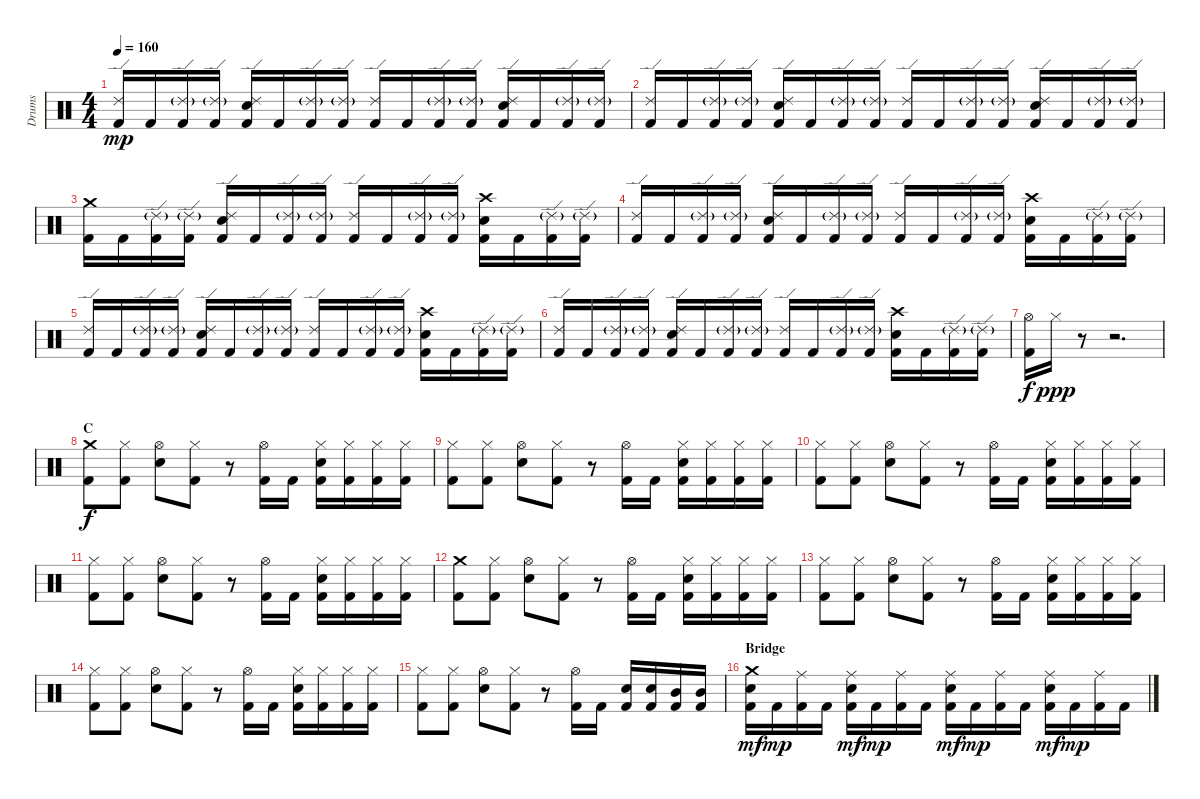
\track ("Drums" "Drums") {instrument percussion}
\staff {score}
\articulation defaults
\ts (4 4)
\tempo 160
\clef neutral
\ks c
("Kick (hit) 2" "Ride (edge) 2").16{dy mp} "Kick (hit) 2".16 ("Kick (hit) 2" "Ride (edge) 2"{g}).16 ("Kick (hit) 2" "Ride (edge) 2"{g}).16 ("Kick (hit) 2" "Snare (hit) 2" "Ride (edge) 2").16 "Kick (hit) 2".16 ("Kick (hit) 2" "Ride (edge) 2"{g}).16 ("Kick (hit) 2" "Ride (edge) 2"{g}).16 ("Kick (hit) 2" "Ride (edge) 2").16 "Kick (hit) 2".16 ("Kick (hit) 2" "Ride (edge) 2"{g}).16 ("Kick (hit) 2" "Ride (edge) 2"{g}).16 ("Kick (hit) 2" "Snare (hit) 2" "Ride (edge) 2").16 "Kick (hit) 2".16 ("Kick (hit) 2" "Ride (edge) 2"{g}).16 ("Kick (hit) 2" "Ride (edge) 2"{g}).16 |
("Kick (hit) 2" "Ride (edge) 2").16 "Kick (hit) 2".16 ("Kick (hit) 2" "Ride (edge) 2"{g}).16 ("Kick (hit) 2" "Ride (edge) 2"{g}).16 ("Kick (hit) 2" "Snare (hit) 2" "Ride (edge) 2").16 "Kick (hit) 2".16 ("Kick (hit) 2" "Ride (edge) 2"{g}).16 ("Kick (hit) 2" "Ride (edge) 2"{g}).16 ("Kick (hit) 2" "Ride (edge) 2").16 "Kick (hit) 2".16 ("Kick (hit) 2" "Ride (edge) 2"{g}).16 ("Kick (hit) 2" "Ride (edge) 2"{g}).16 ("Kick (hit) 2" "Snare (hit) 2" "Ride (edge) 2").16 "Kick (hit) 2".16 ("Kick (hit) 2" "Ride (edge) 2"{g}).16 ("Kick (hit) 2" "Ride (edge) 2"{g}).16 |
("Kick (hit) 2" "Crash medium (hit)").16 "Kick (hit) 2".16 ("Kick (hit) 2" "Ride (edge) 2"{g}).16 ("Kick (hit) 2" "Ride (edge) 2"{g}).16 ("Kick (hit) 2" "Snare (hit) 2" "Ride (edge) 2").16 "Kick (hit) 2".16 ("Kick (hit) 2" "Ride (edge) 2"{g}).16 ("Kick (hit) 2" "Ride (edge) 2"{g}).16 ("Kick (hit) 2" "Ride (edge) 2").16 "Kick (hit) 2".16 ("Kick (hit) 2" "Ride (edge) 2"{g}).16 ("Kick (hit) 2" "Ride (edge) 2"{g}).16 ("Kick (hit) 2" "Snare (hit) 2" "Crash high (hit)").16 "Kick (hit) 2".16 ("Kick (hit) 2" "Ride (edge) 2"{g}).16 ("Kick (hit) 2" "Ride (edge) 2"{g}).16 |
("Kick (hit) 2" "Ride (edge) 2").16 "Kick (hit) 2".16 ("Kick (hit) 2" "Ride (edge) 2"{g}).16 ("Kick (hit) 2" "Ride (edge) 2"{g}).16 ("Kick (hit) 2" "Snare (hit) 2" "Ride (edge) 2").16 "Kick (hit) 2".16 ("Kick (hit) 2" "Ride (edge) 2"{g}).16 ("Kick (hit) 2" "Ride (edge) 2"{g}).16 ("Kick (hit) 2" "Ride (edge) 2").16 "Kick (hit) 2".16 ("Kick (hit) 2" "Ride (edge) 2"{g}).16 ("Kick (hit) 2" "Ride (edge) 2"{g}).16 ("Kick (hit) 2" "Snare (hit) 2" "Crash high (hit)").16 "Kick (hit) 2".16 ("Kick (hit) 2" "Ride (edge) 2"{g}).16 ("Kick (hit) 2" "Ride (edge) 2"{g}).16 |
("Kick (hit) 2" "Ride (edge) 2").16 "Kick (hit) 2".16 ("Kick (hit) 2" "Ride (edge) 2"{g}).16 ("Kick (hit) 2" "Ride (edge) 2"{g}).16 ("Kick (hit) 2" "Snare (hit) 2" "Ride (edge) 2").16 "Kick (hit) 2".16 ("Kick (hit) 2" "Ride (edge) 2"{g}).16 ("Kick (hit) 2" "Ride (edge) 2"{g}).16 ("Kick (hit) 2" "Ride (edge) 2").16 "Kick (hit) 2".16 ("Kick (hit) 2" "Ride (edge) 2"{g}).16 ("Kick (hit) 2" "Ride (edge) 2"{g}).16 ("Kick (hit) 2" "Snare (hit) 2" "Crash high (hit)").16 "Kick (hit) 2".16 ("Kick (hit) 2" "Ride (edge) 2"{g}).16 ("Kick (hit) 2" "Ride (edge) 2"{g}).16 |
("Kick (hit) 2" "Ride (edge) 2").16 "Kick (hit) 2".16 ("Kick (hit) 2" "Ride (edge) 2"{g}).16 ("Kick (hit) 2" "Ride (edge) 2"{g}).16 ("Kick (hit) 2" "Snare (hit) 2" "Ride (edge) 2").16 "Kick (hit) 2".16 ("Kick (hit) 2" "Ride (edge) 2"{g}).16 ("Kick (hit) 2" "Ride (edge) 2"{g}).16 ("Kick (hit) 2" "Ride (edge) 2").16 "Kick (hit) 2".16 ("Kick (hit) 2" "Ride (edge) 2"{g}).16 ("Kick (hit) 2" "Ride (edge) 2"{g}).16 ("Kick (hit) 2" "Snare (hit) 2" "Crash high (hit)").16 "Kick (hit) 2".16 ("Kick (hit) 2" "Ride (edge) 2"{g}).16 ("Kick (hit) 2" "Ride (edge) 2"{g}).16 |
("Hi-Hat (open)" "Kick (hit) 2").16{dy f} "Hi-Hat (closed)".16{dy ppp} r.8 r.2{d} |
\section ("" "C")
("Kick (hit) 2" "Crash medium (hit)").8{dy f} ("Kick (hit) 2" "Hi-Hat (closed)").8 ("Electric Snare (hit)" "Hi-Hat (open)").8 ("Kick (hit) 2" "Hi-Hat (closed)").8 r.8 ("Kick (hit) 2" "Hi-Hat (open)").16 "Kick (hit) 2".16 ("Kick (hit) 2" "Electric Snare (hit)" "Hi-Hat (closed)").16 ("Kick (hit) 2" "Hi-Hat (closed)").16 ("Kick (hit) 2" "Hi-Hat (closed)").16 ("Kick (hit) 2" "Hi-Hat (closed)").16 |
("Kick (hit) 2" "Hi-Hat (closed)").8 ("Kick (hit) 2" "Hi-Hat (closed)").8 ("Electric Snare (hit)" "Hi-Hat (open)").8 ("Kick (hit) 2" "Hi-Hat (closed)").8 r.8 ("Kick (hit) 2" "Hi-Hat (open)").16 "Kick (hit) 2".16 ("Kick (hit) 2" "Electric Snare (hit)" "Hi-Hat (closed)").16 ("Kick (hit) 2" "Hi-Hat (closed)").16 ("Kick (hit) 2" "Hi-Hat (closed)").16 ("Kick (hit) 2" "Hi-Hat (closed)").16 |
("Kick (hit) 2" "Hi-Hat (closed)").8 ("Kick (hit) 2" "Hi-Hat (closed)").8 ("Electric Snare (hit)" "Hi-Hat (open)").8 ("Kick (hit) 2" "Hi-Hat (closed)").8 r.8 ("Kick (hit) 2" "Hi-Hat (open)").16 "Kick (hit) 2".16 ("Kick (hit) 2" "Electric Snare (hit)" "Hi-Hat (closed)").16 ("Kick (hit) 2" "Hi-Hat (closed)").16 ("Kick (hit) 2" "Hi-Hat (closed)").16 ("Kick (hit) 2" "Hi-Hat (closed)").16 |
("Kick (hit) 2" "Hi-Hat (closed)").8 ("Kick (hit) 2" "Hi-Hat (closed)").8 ("Electric Snare (hit)" "Hi-Hat (open)").8 ("Kick (hit) 2" "Hi-Hat (closed)").8 r.8 ("Kick (hit) 2" "Hi-Hat (open)").16 "Kick (hit) 2".16 ("Kick (hit) 2" "Electric Snare (hit)" "Hi-Hat (closed)").16 ("Kick (hit) 2" "Hi-Hat (closed)").16 ("Kick (hit) 2" "Hi-Hat (closed)").16 ("Kick (hit) 2" "Hi-Hat (closed)").16 |
("Kick (hit) 2" "Crash medium (hit)").8 ("Kick (hit) 2" "Hi-Hat (closed)").8 ("Electric Snare (hit)" "Hi-Hat (open)").8 ("Kick (hit) 2" "Hi-Hat (closed)").8 r.8 ("Kick (hit) 2" "Hi-Hat (open)").16 "Kick (hit) 2".16 ("Kick (hit) 2" "Electric Snare (hit)" "Hi-Hat (closed)").16 ("Kick (hit) 2" "Hi-Hat (closed)").16 ("Kick (hit) 2" "Hi-Hat (closed)").16 ("Kick (hit) 2" "Hi-Hat (closed)").16 |
("Kick (hit) 2" "Hi-Hat (closed)").8 ("Kick (hit) 2" "Hi-Hat (closed)").8 ("Electric Snare (hit)" "Hi-Hat (open)").8 ("Kick (hit) 2" "Hi-Hat (closed)").8 r.8 ("Kick (hit) 2" "Hi-Hat (open)").16 "Kick (hit) 2".16 ("Kick (hit) 2" "Electric Snare (hit)" "Hi-Hat (closed)").16 ("Kick (hit) 2" "Hi-Hat (closed)").16 ("Kick (hit) 2" "Hi-Hat (closed)").16 ("Kick (hit) 2" "Hi-Hat (closed)").16 |
("Kick (hit) 2" "Hi-Hat (closed)").8 ("Kick (hit) 2" "Hi-Hat (closed)").8 ("Electric Snare (hit)" "Hi-Hat (open)").8 ("Kick (hit) 2" "Hi-Hat (closed)").8 r.8 ("Kick (hit) 2" "Hi-Hat (open)").16 "Kick (hit) 2".16 ("Kick (hit) 2" "Electric Snare (hit)" "Hi-Hat (closed)").16 ("Kick (hit) 2" "Hi-Hat (closed)").16 ("Kick (hit) 2" "Hi-Hat (closed)").16 ("Kick (hit) 2" "Hi-Hat (closed)").16 |
("Kick (hit) 2" "Hi-Hat (closed)").8 ("Kick (hit) 2" "Hi-Hat (closed)").8 ("Electric Snare (hit)" "Hi-Hat (open)").8 ("Kick (hit) 2" "Hi-Hat (closed)").8 r.8 ("Kick (hit) 2" "Hi-Hat (open)").16 "Kick (hit) 2".16 ("Kick (hit) 2" "Electric Snare (hit)").16 ("Kick (hit) 2" "Electric Snare (hit)").16 ("Kick (hit) 2" "Mid Tom (hit)").16 ("Kick (hit) 2" "Mid Tom (hit)").16 |
\section ("" "Bridge")
("Kick (hit) 2" "Electric Snare (hit)" "Crash medium (hit)").16{dy mf} "Kick (hit) 2".16{dy mp} ("Kick (hit) 2" "Ride (middle)").16 "Kick (hit) 2".16 ("Kick (hit) 2" "Electric Snare (hit)" "Ride (middle)").16{dy mf} "Kick (hit) 2".16{dy mp} ("Kick (hit) 2" "Ride (middle)").16 "Kick (hit) 2".16 ("Kick (hit) 2" "Electric Snare (hit)" "Ride (middle)").16{dy mf} "Kick (hit) 2".16{dy mp} ("Kick (hit) 2" "Ride (middle)").16 "Kick (hit) 2".16 ("Kick (hit) 2" "Electric Snare (hit)" "Ride (middle)").16{dy mf} "Kick (hit) 2".16{dy mp} ("Kick (hit) 2" "Ride (middle)").16 "Kick (hit) 2".16
